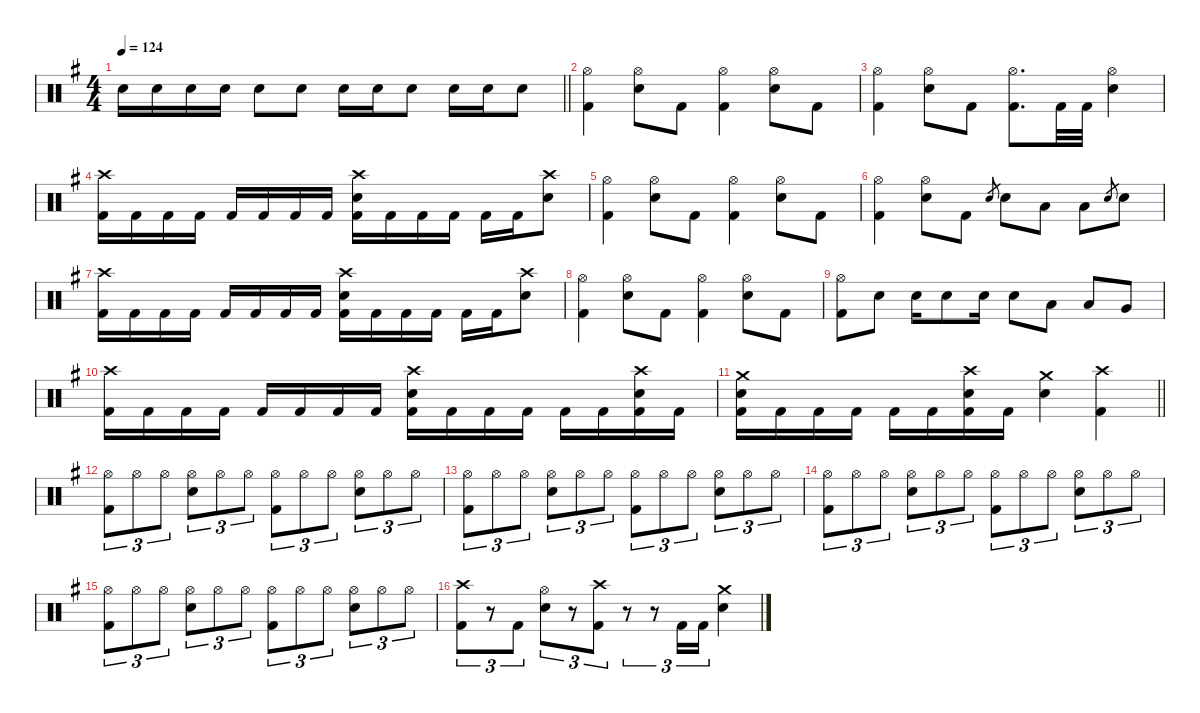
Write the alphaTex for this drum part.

\defaultSystemsLayout 4
\hideDynamics
\bracketExtendMode nobrackets
\singleTrackTrackNamePolicy hidden
\multiTrackTrackNamePolicy hidden
\otherSystemsTrackNameOrientation horizontal
\track ("Drums" "drm.") {defaultSystemsLayout 4 instrument percussion}
\staff {score}
\articulation defaults
\ts (4 4)
\tempo 124
\clef neutral
\barLineRight lightlight
\ks g "Snare (hit) 2"{acc forcenatural}.16{dy ff beam Down} "Snare (hit) 2"{acc forcenatural}.16{beam Down} "Snare (hit) 2"{acc forcenatural}.16{beam Down} "Snare (hit) 2"{acc forcenatural}.16{beam Down} "Snare (hit) 2"{acc forcenatural}.8{beam Down} "Snare (hit) 2"{acc forcenatural}.8{beam Down} "Snare (hit) 2"{acc forcenatural}.16{beam Down} "Snare (hit) 2"{acc forcenatural}.16{beam Down} "Snare (hit) 2"{acc forcenatural}.8{beam Down} "Snare (hit) 2"{acc forcenatural}.16{beam Down} "Snare (hit) 2"{acc forcenatural}.16{beam Down} "Snare (hit) 2"{acc forcenatural}.8{beam Down}
|
("Hi-Hat (open)"{acc forcenatural} "Kick (hit) 2"{acc forcenatural}).4{dy mf beam Down} ("Hi-Hat (open)"{acc forcenatural} "Snare (hit) 2"{acc forcenatural}).8{beam Down} "Kick (hit) 2"{acc forcenatural}.8{dy ff beam Down} ("Hi-Hat (open)"{acc forcenatural} "Kick (hit) 2"{acc forcenatural}).4{dy mf beam Down} ("Hi-Hat (open)"{acc forcenatural} "Snare (hit) 2"{acc forcenatural}).8{beam Down} "Kick (hit) 2"{acc forcenatural}.8{dy ff beam Down} |
("Hi-Hat (open)"{acc forcenatural} "Kick (hit) 2"{acc forcenatural}).4{dy mf beam Down} ("Hi-Hat (open)"{acc forcenatural} "Snare (hit) 2"{acc forcenatural}).8{beam Down} "Kick (hit) 2"{acc forcenatural}.8{dy ff beam Down} ("Hi-Hat (open)"{acc forcenatural} "Kick (hit) 2"{acc forcenatural}).8{d dy mf beam Down} "Kick (hit) 2"{acc forcenatural}.32{dy ff beam Down} "Kick (hit) 2"{acc forcenatural}.32{beam Down} ("Hi-Hat (open)"{acc forcenatural} "Snare (hit) 2"{acc forcenatural}).4{dy mf beam Down} |
("Crash high (hit)"{acc forcenatural} "Kick (hit) 2"{acc forcenatural}).16{beam Down} "Kick (hit) 2"{acc forcenatural}.16{dy ff beam Down} "Kick (hit) 2"{acc forcenatural}.16{beam Down} "Kick (hit) 2"{acc forcenatural}.16{beam Down} "Kick (hit) 2"{acc forcenatural}.16{beam Up} "Kick (hit) 2"{acc forcenatural}.16{beam Up} "Kick (hit) 2"{acc forcenatural}.16{beam Up} "Kick (hit) 2"{acc forcenatural}.16{beam Up} ("Crash high (hit)"{acc forcenatural} "Snare (hit) 2"{acc forcenatural} "Kick (hit) 2"{acc forcenatural}).16{dy mf beam Down} "Kick (hit) 2"{acc forcenatural}.16{dy ff beam Down} "Kick (hit) 2"{acc forcenatural}.16{beam Down} "Kick (hit) 2"{acc forcenatural}.16{beam Down} "Kick (hit) 2"{acc forcenatural}.16{beam Down} "Kick (hit) 2"{acc forcenatural}.16{beam Down} ("Crash high (hit)"{acc forcenatural} "Snare (hit) 2"{acc forcenatural}).8{dy mf beam Down} |
("Hi-Hat (open)"{acc forcenatural} "Kick (hit) 2"{acc forcenatural}).4{beam Down} ("Hi-Hat (open)"{acc forcenatural} "Snare (hit) 2"{acc forcenatural}).8{beam Down} "Kick (hit) 2"{acc forcenatural}.8{dy ff beam Down} ("Hi-Hat (open)"{acc forcenatural} "Kick (hit) 2"{acc forcenatural}).4{dy mf beam Down} ("Hi-Hat (open)"{acc forcenatural} "Snare (hit) 2"{acc forcenatural}).8{beam Down} "Kick (hit) 2"{acc forcenatural}.8{dy ff beam Down} |
("Hi-Hat (open)"{acc forcenatural} "Kick (hit) 2"{acc forcenatural}).4{dy mf beam Down} ("Hi-Hat (open)"{acc forcenatural} "Snare (hit) 2"{acc forcenatural}).8{beam Down} "Kick (hit) 2"{acc forcenatural}.8{dy ff beam Down} "Electric Snare (hit)"{acc forcenatural}.8{gr dy mp beam Up} "Snare (hit) 2"{acc forcenatural}.8{dy ff beam Down} "Low Tom (hit)"{acc forcenatural}.8{dy f beam Down} "Low Tom (hit)"{acc forcenatural}.8{beam Down} "Electric Snare (hit)"{acc forcenatural}.8{gr dy mp beam Up} "Snare (hit) 2"{acc forcenatural}.8{dy ff beam Down} |
("Crash high (hit)"{acc forcenatural} "Kick (hit) 2"{acc forcenatural}).16{dy mf beam Down} "Kick (hit) 2"{acc forcenatural}.16{dy ff beam Down} "Kick (hit) 2"{acc forcenatural}.16{beam Down} "Kick (hit) 2"{acc forcenatural}.16{beam Down} "Kick (hit) 2"{acc forcenatural}.16{beam Up} "Kick (hit) 2"{acc forcenatural}.16{beam Up} "Kick (hit) 2"{acc forcenatural}.16{beam Up} "Kick (hit) 2"{acc forcenatural}.16{beam Up} ("Crash high (hit)"{acc forcenatural} "Snare (hit) 2"{acc forcenatural} "Kick (hit) 2"{acc forcenatural}).16{dy mf beam Down} "Kick (hit) 2"{acc forcenatural}.16{dy ff beam Down} "Kick (hit) 2"{acc forcenatural}.16{beam Down} "Kick (hit) 2"{acc forcenatural}.16{beam Down} "Kick (hit) 2"{acc forcenatural}.16{beam Down} "Kick (hit) 2"{acc forcenatural}.16{beam Down} ("Crash high (hit)"{acc forcenatural} "Snare (hit) 2"{acc forcenatural}).8{dy mf beam Down} |
("Hi-Hat (open)"{acc forcenatural} "Kick (hit) 2"{acc forcenatural}).4{beam Down} ("Hi-Hat (open)"{acc forcenatural} "Snare (hit) 2"{acc forcenatural}).8{beam Down} "Kick (hit) 2"{acc forcenatural}.8{dy ff beam Down} ("Hi-Hat (open)"{acc forcenatural} "Kick (hit) 2"{acc forcenatural}).4{dy mf beam Down} ("Hi-Hat (open)"{acc forcenatural} "Snare (hit) 2"{acc forcenatural}).8{beam Down} "Kick (hit) 2"{acc forcenatural}.8{dy ff beam Down} |
("Hi-Hat (open)"{acc forcenatural} "Kick (hit) 2"{acc forcenatural}).8{dy mf beam Down} "Snare (hit) 2"{acc forcenatural}.8{dy ff beam Down} "Snare (hit) 2"{acc forcenatural}.16{beam Down} "Snare (hit) 2"{acc forcenatural}.8{beam Down} "Snare (hit) 2"{acc forcenatural}.16{beam Down} "Snare (hit) 2"{acc forcenatural}.8{beam Down} "Low Tom (hit)"{acc forcenatural}.8{dy f beam Down} "Low Tom (hit)"{acc forcenatural}.8{beam Up} "Very Low Tom (hit)"{acc forcenatural}.8{beam Up} |
("Crash high (hit)"{acc forcenatural} "Kick (hit) 2"{acc forcenatural}).16{dy mf beam Down} "Kick (hit) 2"{acc forcenatural}.16{dy ff beam Down} "Kick (hit) 2"{acc forcenatural}.16{beam Down} "Kick (hit) 2"{acc forcenatural}.16{beam Down} "Kick (hit) 2"{acc forcenatural}.16{beam Up} "Kick (hit) 2"{acc forcenatural}.16{beam Up} "Kick (hit) 2"{acc forcenatural}.16{beam Up} "Kick (hit) 2"{acc forcenatural}.16{beam Up} ("Crash high (hit)"{acc forcenatural} "Snare (hit) 2"{acc forcenatural} "Kick (hit) 2"{acc forcenatural}).16{dy mf beam Down} "Kick (hit) 2"{acc forcenatural}.16{dy ff beam Down} "Kick (hit) 2"{acc forcenatural}.16{beam Down} "Kick (hit) 2"{acc forcenatural}.16{beam Down} "Kick (hit) 2"{acc forcenatural}.16{beam Down} "Kick (hit) 2"{acc forcenatural}.16{beam Down} ("Crash high (hit)"{acc forcenatural} "Snare (hit) 2"{acc forcenatural} "Kick (hit) 2"{acc forcenatural}).16{dy mf beam Down} "Kick (hit) 2"{acc forcenatural}.16{dy ff beam Down} |
\barLineRight lightlight
("Crash medium (hit)"{acc forcenatural} "Snare (hit) 2"{acc forcenatural} "Kick (hit) 2"{acc forcenatural}).16{dy mf beam Down} "Kick (hit) 2"{acc forcenatural}.16{dy ff beam Down} "Kick (hit) 2"{acc forcenatural}.16{beam Down} "Kick (hit) 2"{acc forcenatural}.16{beam Down} "Kick (hit) 2"{acc forcenatural}.16{beam Down} "Kick (hit) 2"{acc forcenatural}.16{beam Down} ("Crash high (hit)"{acc forcenatural} "Snare (hit) 2"{acc forcenatural} "Kick (hit) 2"{acc forcenatural}).16{dy mf beam Down} "Kick (hit) 2"{acc forcenatural}.16{dy ff beam Down} ("Crash medium (hit)"{acc forcenatural} "Snare (hit) 2"{acc forcenatural}).4{dy mf beam Down} ("Crash high (hit)"{acc forcenatural} "Kick (hit) 2"{acc forcenatural}).4{beam Down} |
("Hi-Hat (open)"{acc forcenatural} "Kick (hit) 2"{acc forcenatural}).8{tu (3 2) beam Down} "Hi-Hat (open)"{acc forcenatural}.8{tu (3 2) beam Down} "Hi-Hat (open)"{acc forcenatural}.8{tu (3 2) beam Down} ("Hi-Hat (open)"{acc forcenatural} "Snare (hit) 2"{acc forcenatural}).8{tu (3 2) beam Down} "Hi-Hat (open)"{acc forcenatural}.8{tu (3 2) beam Down} "Hi-Hat (open)"{acc forcenatural}.8{tu (3 2) beam Down} ("Hi-Hat (open)"{acc forcenatural} "Kick (hit) 2"{acc forcenatural}).8{tu (3 2) beam Down} "Hi-Hat (open)"{acc forcenatural}.8{tu (3 2) beam Down} "Hi-Hat (open)"{acc forcenatural}.8{tu (3 2) beam Down} ("Hi-Hat (open)"{acc forcenatural} "Snare (hit) 2"{acc forcenatural}).8{tu (3 2) beam Down} "Hi-Hat (open)"{acc forcenatural}.8{tu (3 2) beam Down} "Hi-Hat (open)"{acc forcenatural}.8{tu (3 2) beam Down} |
("Hi-Hat (open)"{acc forcenatural} "Kick (hit) 2"{acc forcenatural}).8{tu (3 2) beam Down} "Hi-Hat (open)"{acc forcenatural}.8{tu (3 2) beam Down} "Hi-Hat (open)"{acc forcenatural}.8{tu (3 2) beam Down} ("Hi-Hat (open)"{acc forcenatural} "Snare (hit) 2"{acc forcenatural}).8{tu (3 2) beam Down} "Hi-Hat (open)"{acc forcenatural}.8{tu (3 2) beam Down} "Hi-Hat (open)"{acc forcenatural}.8{tu (3 2) beam Down} ("Hi-Hat (open)"{acc forcenatural} "Kick (hit) 2"{acc forcenatural}).8{tu (3 2) beam Down} "Hi-Hat (open)"{acc forcenatural}.8{tu (3 2) beam Down} "Hi-Hat (open)"{acc forcenatural}.8{tu (3 2) beam Down} ("Hi-Hat (open)"{acc forcenatural} "Snare (hit) 2"{acc forcenatural}).8{tu (3 2) beam Down} "Hi-Hat (open)"{acc forcenatural}.8{tu (3 2) beam Down} "Hi-Hat (open)"{acc forcenatural}.8{tu (3 2) beam Down} |
("Hi-Hat (open)"{acc forcenatural} "Kick (hit) 2"{acc forcenatural}).8{tu (3 2) beam Down} "Hi-Hat (open)"{acc forcenatural}.8{tu (3 2) beam Down} "Hi-Hat (open)"{acc forcenatural}.8{tu (3 2) beam Down} ("Hi-Hat (open)"{acc forcenatural} "Snare (hit) 2"{acc forcenatural}).8{tu (3 2) beam Down} "Hi-Hat (open)"{acc forcenatural}.8{tu (3 2) beam Down} "Hi-Hat (open)"{acc forcenatural}.8{tu (3 2) beam Down} ("Hi-Hat (open)"{acc forcenatural} "Kick (hit) 2"{acc forcenatural}).8{tu (3 2) beam Down} "Hi-Hat (open)"{acc forcenatural}.8{tu (3 2) beam Down} "Hi-Hat (open)"{acc forcenatural}.8{tu (3 2) beam Down} ("Hi-Hat (open)"{acc forcenatural} "Snare (hit) 2"{acc forcenatural}).8{tu (3 2) beam Down} "Hi-Hat (open)"{acc forcenatural}.8{tu (3 2) beam Down} "Hi-Hat (open)"{acc forcenatural}.8{tu (3 2) beam Down} |
("Hi-Hat (open)"{acc forcenatural} "Kick (hit) 2"{acc forcenatural}).8{tu (3 2) beam Down} "Hi-Hat (open)"{acc forcenatural}.8{tu (3 2) beam Down} "Hi-Hat (open)"{acc forcenatural}.8{tu (3 2) beam Down} ("Hi-Hat (open)"{acc forcenatural} "Snare (hit) 2"{acc forcenatural}).8{tu (3 2) beam Down} "Hi-Hat (open)"{acc forcenatural}.8{tu (3 2) beam Down} "Hi-Hat (open)"{acc forcenatural}.8{tu (3 2) beam Down} ("Hi-Hat (open)"{acc forcenatural} "Kick (hit) 2"{acc forcenatural}).8{tu (3 2) beam Down} "Hi-Hat (open)"{acc forcenatural}.8{tu (3 2) beam Down} "Hi-Hat (open)"{acc forcenatural}.8{tu (3 2) beam Down} ("Hi-Hat (open)"{acc forcenatural} "Snare (hit) 2"{acc forcenatural}).8{tu (3 2) beam Down} "Hi-Hat (open)"{acc forcenatural}.8{tu (3 2) beam Down} "Hi-Hat (open)"{acc forcenatural}.8{tu (3 2) beam Down} |
("Crash high (hit)"{acc forcenatural} "Kick (hit) 2"{acc forcenatural}).8{tu (3 2) beam Down} r.8{tu (3 2) beam Down} "Kick (hit) 2"{acc forcenatural}.8{tu (3 2) dy ff beam Down} ("Hi-Hat (open)"{acc forcenatural} "Snare (hit) 2"{acc forcenatural}).8{tu (3 2) dy mf beam Down} r.8{tu (3 2) beam Down} ("Crash high (hit)"{acc forcenatural} "Kick (hit) 2"{acc forcenatural}).8{tu (3 2) beam Down} r.8{tu (3 2) beam Down} r.8{tu (3 2) beam Down} "Kick (hit) 2"{acc forcenatural}.16{tu (3 2) dy ff beam Up} "Kick (hit) 2"{acc forcenatural}.16{tu (3 2) beam Up} ("Crash medium (hit)"{acc forcenatural} "Snare (hit) 2"{acc forcenatural}).4{dy mf beam Down}
